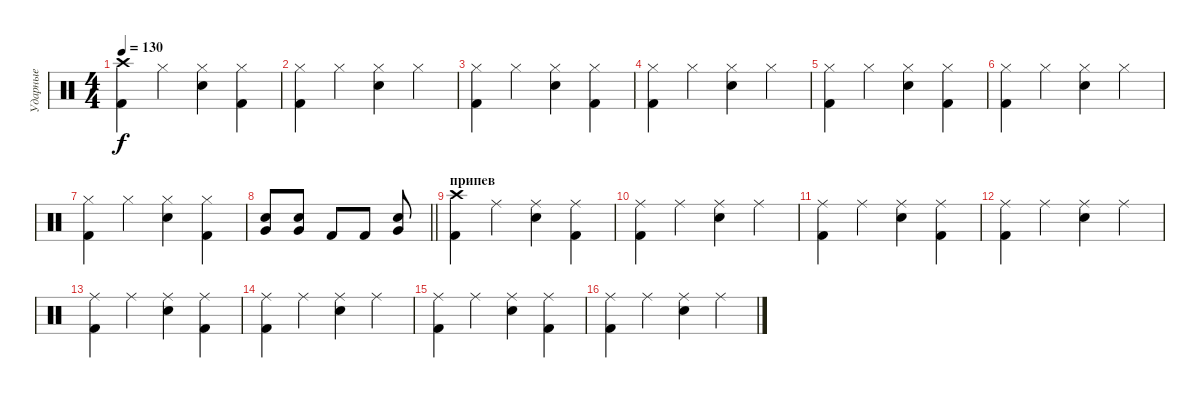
\track ("Ударные" "Ударные") {instrument percussion}
\staff {score}
\articulation defaults
\ts (4 4)
\tempo 130
\clef neutral
\ks c
("Crash high (hit)" "Kick (hit) 2").4{dy f} "Hi-Hat (closed)".4 ("Hi-Hat (closed)" "Snare (hit) 2").4 ("Hi-Hat (closed)" "Kick (hit) 2").4 |
("Hi-Hat (closed)" "Kick (hit) 2").4 "Hi-Hat (closed)".4 ("Hi-Hat (closed)" "Snare (hit) 2").4 "Hi-Hat (closed)".4 |
("Hi-Hat (closed)" "Kick (hit) 2").4 "Hi-Hat (closed)".4 ("Hi-Hat (closed)" "Snare (hit) 2").4 ("Hi-Hat (closed)" "Kick (hit) 2").4 |
("Hi-Hat (closed)" "Kick (hit) 2").4 "Hi-Hat (closed)".4 ("Hi-Hat (closed)" "Snare (hit) 2").4 "Hi-Hat (closed)".4 |
("Hi-Hat (closed)" "Kick (hit) 2").4 "Hi-Hat (closed)".4 ("Hi-Hat (closed)" "Snare (hit) 2").4 ("Hi-Hat (closed)" "Kick (hit) 2").4 |
("Hi-Hat (closed)" "Kick (hit) 2").4 "Hi-Hat (closed)".4 ("Hi-Hat (closed)" "Snare (hit) 2").4 "Hi-Hat (closed)".4 |
("Hi-Hat (closed)" "Kick (hit) 2").4 "Hi-Hat (closed)".4 ("Hi-Hat (closed)" "Snare (hit) 2").4 ("Hi-Hat (closed)" "Kick (hit) 2").4 |
\barLineRight lightlight
("Very Low Tom (hit)" "Snare (hit) 2").8 ("Very Low Tom (hit)" "Snare (hit) 2").8 "Kick (hit) 2".8 "Kick (hit) 2".8 ("Very Low Tom (hit)" "Snare (hit) 2").8 |
\section ("" "припев")
("Crash high (hit)" "Kick (hit) 2").4 "Ride (middle)".4 ("Ride (middle)" "Snare (hit) 2").4 ("Ride (middle)" "Kick (hit) 2").4 |
("Ride (middle)" "Kick (hit) 2").4 "Ride (middle)".4 ("Ride (middle)" "Snare (hit) 2").4 "Ride (middle)".4 |
("Ride (middle)" "Kick (hit) 2").4 "Ride (middle)".4 ("Ride (middle)" "Snare (hit) 2").4 ("Ride (middle)" "Kick (hit) 2").4 |
("Ride (middle)" "Kick (hit) 2").4 "Ride (middle)".4 ("Ride (middle)" "Snare (hit) 2").4 "Ride (middle)".4 |
("Ride (middle)" "Kick (hit) 2").4 "Ride (middle)".4 ("Ride (middle)" "Snare (hit) 2").4 ("Ride (middle)" "Kick (hit) 2").4 |
("Ride (middle)" "Kick (hit) 2").4 "Ride (middle)".4 ("Ride (middle)" "Snare (hit) 2").4 "Ride (middle)".4 |
("Ride (middle)" "Kick (hit) 2").4 "Ride (middle)".4 ("Ride (middle)" "Snare (hit) 2").4 ("Ride (middle)" "Kick (hit) 2").4 |
("Ride (middle)" "Kick (hit) 2").4 "Ride (middle)".4 ("Ride (middle)" "Snare (hit) 2").4 "Ride (middle)".4
